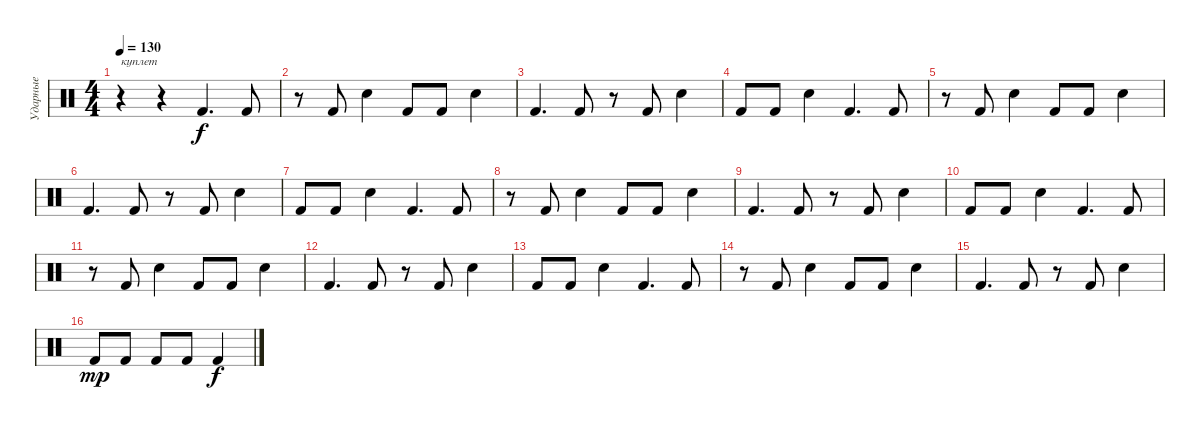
\track ("Ударные" "Ударные") {instrument percussion}
\staff {score}
\articulation defaults
\ts (4 4)
\tempo 130
\clef neutral
\ks c
r.4{txt "куплет" dy f} r.4 "Kick (hit) 2".4{d} "Kick (hit) 2".8 |
r.8 "Kick (hit) 2".8 "Electric Snare (hit)".4 "Kick (hit) 2".8 "Kick (hit) 2".8 "Electric Snare (hit)".4 |
"Kick (hit) 2".4{d} "Kick (hit) 2".8 r.8 "Kick (hit) 2".8 "Electric Snare (hit)".4 |
"Kick (hit) 2".8 "Kick (hit) 2".8 "Electric Snare (hit)".4 "Kick (hit) 2".4{d} "Kick (hit) 2".8 |
r.8 "Kick (hit) 2".8 "Electric Snare (hit)".4 "Kick (hit) 2".8 "Kick (hit) 2".8 "Electric Snare (hit)".4 |
"Kick (hit) 2".4{d} "Kick (hit) 2".8 r.8 "Kick (hit) 2".8 "Electric Snare (hit)".4 |
"Kick (hit) 2".8 "Kick (hit) 2".8 "Electric Snare (hit)".4 "Kick (hit) 2".4{d} "Kick (hit) 2".8 |
r.8 "Kick (hit) 2".8 "Electric Snare (hit)".4 "Kick (hit) 2".8 "Kick (hit) 2".8 "Electric Snare (hit)".4 |
"Kick (hit) 2".4{d} "Kick (hit) 2".8 r.8 "Kick (hit) 2".8 "Electric Snare (hit)".4 |
"Kick (hit) 2".8 "Kick (hit) 2".8 "Electric Snare (hit)".4 "Kick (hit) 2".4{d} "Kick (hit) 2".8 |
r.8 "Kick (hit) 2".8 "Electric Snare (hit)".4 "Kick (hit) 2".8 "Kick (hit) 2".8 "Electric Snare (hit)".4 |
"Kick (hit) 2".4{d} "Kick (hit) 2".8 r.8 "Kick (hit) 2".8 "Electric Snare (hit)".4 |
"Kick (hit) 2".8 "Kick (hit) 2".8 "Electric Snare (hit)".4 "Kick (hit) 2".4{d} "Kick (hit) 2".8 |
r.8 "Kick (hit) 2".8 "Electric Snare (hit)".4 "Kick (hit) 2".8 "Kick (hit) 2".8 "Electric Snare (hit)".4 |
"Kick (hit) 2".4{d} "Kick (hit) 2".8 r.8 "Kick (hit) 2".8 "Electric Snare (hit)".4 |
"Kick (hit) 2".8{dy mp} "Kick (hit) 2".8 "Kick (hit) 2".8 "Kick (hit) 2".8 "Kick (hit) 2".4{dy f}
